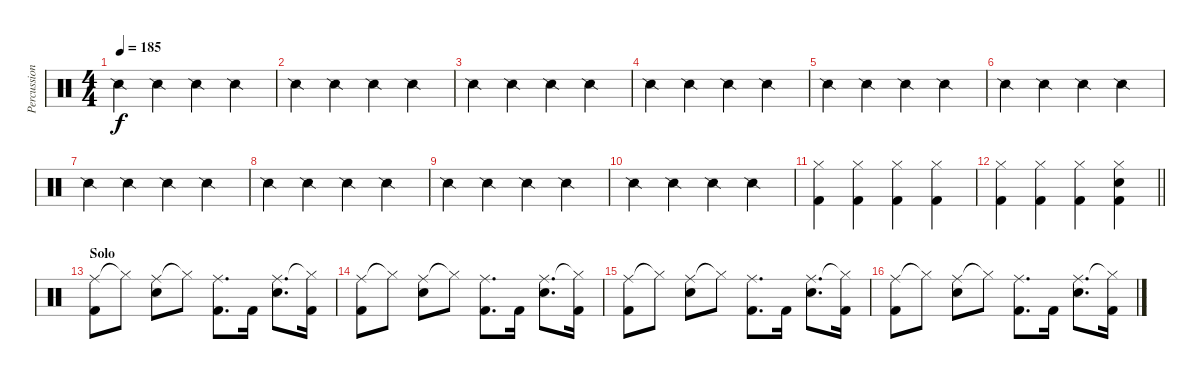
\track ("Percussion" "Percussion") {instrument percussion}
\staff {score}
\articulation defaults
\ts (4 4)
\tempo 185
\clef neutral
\ks c "Snare (side stick) 2".4{dy f} "Snare (side stick) 2".4 "Snare (side stick) 2".4 "Snare (side stick) 2".4
|
"Snare (side stick) 2".4 "Snare (side stick) 2".4 "Snare (side stick) 2".4 "Snare (side stick) 2".4 |
"Snare (side stick) 2".4 "Snare (side stick) 2".4 "Snare (side stick) 2".4 "Snare (side stick) 2".4 |
"Snare (side stick) 2".4 "Snare (side stick) 2".4 "Snare (side stick) 2".4 "Snare (side stick) 2".4 |
"Snare (side stick) 2".4 "Snare (side stick) 2".4 "Snare (side stick) 2".4 "Snare (side stick) 2".4 |
"Snare (side stick) 2".4 "Snare (side stick) 2".4 "Snare (side stick) 2".4 "Snare (side stick) 2".4 |
"Snare (side stick) 2".4 "Snare (side stick) 2".4 "Snare (side stick) 2".4 "Snare (side stick) 2".4 |
"Snare (side stick) 2".4 "Snare (side stick) 2".4 "Snare (side stick) 2".4 "Snare (side stick) 2".4 |
"Snare (side stick) 2".4 "Snare (side stick) 2".4 "Snare (side stick) 2".4 "Snare (side stick) 2".4 |
"Snare (side stick) 2".4 "Snare (side stick) 2".4 "Snare (side stick) 2".4 "Snare (side stick) 2".4 |
("Hi-Hat (closed)" "Kick (hit) 2").4 ("Hi-Hat (closed)" "Kick (hit) 2").4 ("Hi-Hat (closed)" "Kick (hit) 2").4 ("Hi-Hat (closed)" "Kick (hit) 2").4 |
\barLineRight lightlight
("Hi-Hat (closed)" "Kick (hit) 2").4 ("Hi-Hat (closed)" "Kick (hit) 2").4 ("Hi-Hat (closed)" "Kick (hit) 2").4 ("Hi-Hat (closed)" "Snare (hit) 2" "Kick (hit) 2").4 |
\section ("" "Solo")
("Ride (middle)" "Kick (hit) 2").8 "Hi-Hat (closed)"{t}.8 ("Ride (middle)" "Snare (hit) 2").8 "Hi-Hat (closed)"{t}.8 ("Ride (middle)" "Kick (hit) 2").8{d} "Kick (hit) 2".16 ("Ride (middle)" "Snare (hit) 2").8{d} ("Hi-Hat (closed)"{t} "Kick (hit) 2").16 |
("Ride (middle)" "Kick (hit) 2").8 "Hi-Hat (closed)"{t}.8 ("Ride (middle)" "Snare (hit) 2").8 "Hi-Hat (closed)"{t}.8 ("Ride (middle)" "Kick (hit) 2").8{d} "Kick (hit) 2".16 ("Ride (middle)" "Snare (hit) 2").8{d} ("Hi-Hat (closed)"{t} "Kick (hit) 2").16 |
("Ride (middle)" "Kick (hit) 2").8 "Hi-Hat (closed)"{t}.8 ("Ride (middle)" "Snare (hit) 2").8 "Hi-Hat (closed)"{t}.8 ("Ride (middle)" "Kick (hit) 2").8{d} "Kick (hit) 2".16 ("Ride (middle)" "Snare (hit) 2").8{d} ("Hi-Hat (closed)"{t} "Kick (hit) 2").16 |
("Ride (middle)" "Kick (hit) 2").8 "Hi-Hat (closed)"{t}.8 ("Ride (middle)" "Snare (hit) 2").8 "Hi-Hat (closed)"{t}.8 ("Ride (middle)" "Kick (hit) 2").8{d} "Kick (hit) 2".16 ("Ride (middle)" "Snare (hit) 2").8{d} ("Hi-Hat (closed)"{t} "Kick (hit) 2").16
